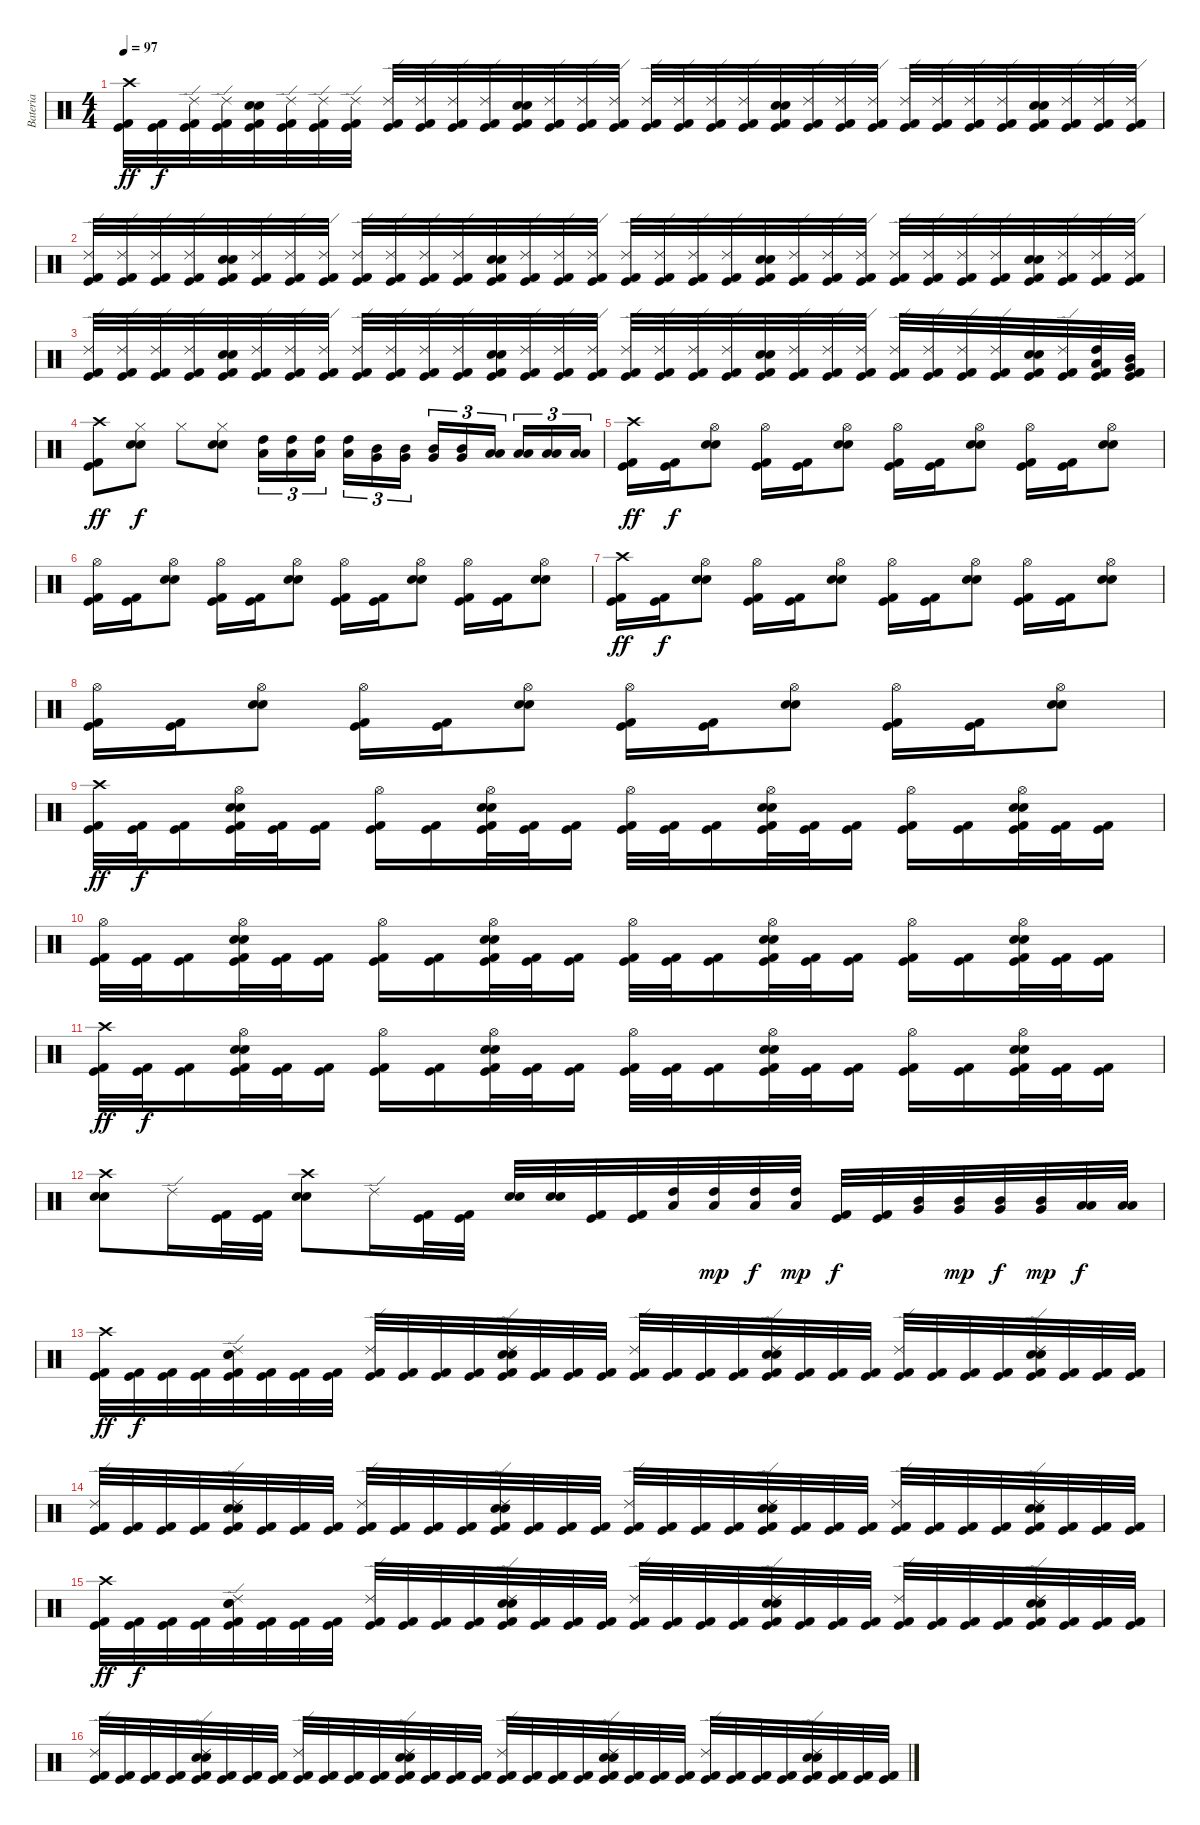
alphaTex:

\track ("Bateria" "Bateria") {instrument percussion}
\staff {score}
\articulation defaults
\ts (4 4)
\tempo 97
\clef neutral
\ks c
("Crash high (hit)" "Kick (hit) 2" "Kick (hit)").32{dy ff} ("Kick (hit) 2" "Kick (hit)").32{dy f} ("Ride (edge) 2" "Kick (hit) 2" "Kick (hit)").32 ("Ride (edge) 2" "Kick (hit) 2" "Kick (hit)").32 ("Electric Snare (hit)" "Snare (hit) 2" "Kick (hit) 2" "Kick (hit)").32 ("Ride (edge) 2" "Kick (hit) 2" "Kick (hit)").32 ("Ride (edge) 2" "Kick (hit) 2" "Kick (hit)").32 ("Ride (edge) 2" "Kick (hit) 2" "Kick (hit)").32 ("Ride (edge) 2" "Kick (hit) 2" "Kick (hit)").32 ("Ride (edge) 2" "Kick (hit) 2" "Kick (hit)").32 ("Ride (edge) 2" "Kick (hit) 2" "Kick (hit)").32 ("Ride (edge) 2" "Kick (hit) 2" "Kick (hit)").32 ("Electric Snare (hit)" "Snare (hit) 2" "Kick (hit) 2" "Kick (hit)").32 ("Ride (edge) 2" "Kick (hit) 2" "Kick (hit)").32 ("Ride (edge) 2" "Kick (hit) 2" "Kick (hit)").32 ("Ride (edge) 2" "Kick (hit) 2" "Kick (hit)").32 ("Ride (edge) 2" "Kick (hit) 2" "Kick (hit)").32 ("Ride (edge) 2" "Kick (hit) 2" "Kick (hit)").32 ("Ride (edge) 2" "Kick (hit) 2" "Kick (hit)").32 ("Ride (edge) 2" "Kick (hit) 2" "Kick (hit)").32 ("Electric Snare (hit)" "Snare (hit) 2" "Kick (hit) 2" "Kick (hit)").32 ("Ride (edge) 2" "Kick (hit) 2" "Kick (hit)").32 ("Ride (edge) 2" "Kick (hit) 2" "Kick (hit)").32 ("Ride (edge) 2" "Kick (hit) 2" "Kick (hit)").32 ("Ride (edge) 2" "Kick (hit) 2" "Kick (hit)").32 ("Ride (edge) 2" "Kick (hit) 2" "Kick (hit)").32 ("Ride (edge) 2" "Kick (hit) 2" "Kick (hit)").32 ("Ride (edge) 2" "Kick (hit) 2" "Kick (hit)").32 ("Electric Snare (hit)" "Snare (hit) 2" "Kick (hit) 2" "Kick (hit)").32 ("Ride (edge) 2" "Kick (hit) 2" "Kick (hit)").32 ("Ride (edge) 2" "Kick (hit) 2" "Kick (hit)").32 ("Ride (edge) 2" "Kick (hit) 2" "Kick (hit)").32 |
("Ride (edge) 2" "Kick (hit) 2" "Kick (hit)").32 ("Ride (edge) 2" "Kick (hit) 2" "Kick (hit)").32 ("Ride (edge) 2" "Kick (hit) 2" "Kick (hit)").32 ("Ride (edge) 2" "Kick (hit) 2" "Kick (hit)").32 ("Electric Snare (hit)" "Snare (hit) 2" "Kick (hit) 2" "Kick (hit)").32 ("Ride (edge) 2" "Kick (hit) 2" "Kick (hit)").32 ("Ride (edge) 2" "Kick (hit) 2" "Kick (hit)").32 ("Ride (edge) 2" "Kick (hit) 2" "Kick (hit)").32 ("Ride (edge) 2" "Kick (hit) 2" "Kick (hit)").32 ("Ride (edge) 2" "Kick (hit) 2" "Kick (hit)").32 ("Ride (edge) 2" "Kick (hit) 2" "Kick (hit)").32 ("Ride (edge) 2" "Kick (hit) 2" "Kick (hit)").32 ("Electric Snare (hit)" "Snare (hit) 2" "Kick (hit) 2" "Kick (hit)").32 ("Ride (edge) 2" "Kick (hit) 2" "Kick (hit)").32 ("Ride (edge) 2" "Kick (hit) 2" "Kick (hit)").32 ("Ride (edge) 2" "Kick (hit) 2" "Kick (hit)").32 ("Ride (edge) 2" "Kick (hit) 2" "Kick (hit)").32 ("Ride (edge) 2" "Kick (hit) 2" "Kick (hit)").32 ("Ride (edge) 2" "Kick (hit) 2" "Kick (hit)").32 ("Ride (edge) 2" "Kick (hit) 2" "Kick (hit)").32 ("Electric Snare (hit)" "Snare (hit) 2" "Kick (hit) 2" "Kick (hit)").32 ("Ride (edge) 2" "Kick (hit) 2" "Kick (hit)").32 ("Ride (edge) 2" "Kick (hit) 2" "Kick (hit)").32 ("Ride (edge) 2" "Kick (hit) 2" "Kick (hit)").32 ("Ride (edge) 2" "Kick (hit) 2" "Kick (hit)").32 ("Ride (edge) 2" "Kick (hit) 2" "Kick (hit)").32 ("Ride (edge) 2" "Kick (hit) 2" "Kick (hit)").32 ("Ride (edge) 2" "Kick (hit) 2" "Kick (hit)").32 ("Electric Snare (hit)" "Snare (hit) 2" "Kick (hit) 2" "Kick (hit)").32 ("Ride (edge) 2" "Kick (hit) 2" "Kick (hit)").32 ("Ride (edge) 2" "Kick (hit) 2" "Kick (hit)").32 ("Ride (edge) 2" "Kick (hit) 2" "Kick (hit)").32 |
("Ride (edge) 2" "Kick (hit) 2" "Kick (hit)").32 ("Ride (edge) 2" "Kick (hit) 2" "Kick (hit)").32 ("Ride (edge) 2" "Kick (hit) 2" "Kick (hit)").32 ("Ride (edge) 2" "Kick (hit) 2" "Kick (hit)").32 ("Electric Snare (hit)" "Snare (hit) 2" "Kick (hit) 2" "Kick (hit)").32 ("Ride (edge) 2" "Kick (hit) 2" "Kick (hit)").32 ("Ride (edge) 2" "Kick (hit) 2" "Kick (hit)").32 ("Ride (edge) 2" "Kick (hit) 2" "Kick (hit)").32 ("Ride (edge) 2" "Kick (hit) 2" "Kick (hit)").32 ("Ride (edge) 2" "Kick (hit) 2" "Kick (hit)").32 ("Ride (edge) 2" "Kick (hit) 2" "Kick (hit)").32 ("Ride (edge) 2" "Kick (hit) 2" "Kick (hit)").32 ("Electric Snare (hit)" "Snare (hit) 2" "Kick (hit) 2" "Kick (hit)").32 ("Ride (edge) 2" "Kick (hit) 2" "Kick (hit)").32 ("Ride (edge) 2" "Kick (hit) 2" "Kick (hit)").32 ("Ride (edge) 2" "Kick (hit) 2" "Kick (hit)").32 ("Ride (edge) 2" "Kick (hit) 2" "Kick (hit)").32 ("Ride (edge) 2" "Kick (hit) 2" "Kick (hit)").32 ("Ride (edge) 2" "Kick (hit) 2" "Kick (hit)").32 ("Ride (edge) 2" "Kick (hit) 2" "Kick (hit)").32 ("Electric Snare (hit)" "Snare (hit) 2" "Kick (hit) 2" "Kick (hit)").32 ("Ride (edge) 2" "Kick (hit) 2" "Kick (hit)").32 ("Ride (edge) 2" "Kick (hit) 2" "Kick (hit)").32 ("Ride (edge) 2" "Kick (hit) 2" "Kick (hit)").32 ("Ride (edge) 2" "Kick (hit) 2" "Kick (hit)").32 ("Ride (edge) 2" "Kick (hit) 2" "Kick (hit)").32 ("Ride (edge) 2" "Kick (hit) 2" "Kick (hit)").32 ("Ride (edge) 2" "Kick (hit) 2" "Kick (hit)").32 ("Electric Snare (hit)" "Snare (hit) 2" "Kick (hit) 2" "Kick (hit)").32 ("Ride (edge) 2" "Kick (hit) 2" "Kick (hit)").32 ("High Tom (hit)" "Low Tom (hit)" "Kick (hit) 2" "Kick (hit)").32 ("Mid Tom (hit)" "Very Low Tom (hit)" "Kick (hit) 2" "Kick (hit)").32 |
("Crash high (hit)" "Kick (hit) 2" "Kick (hit)").8{dy ff} ("Hi-Hat (closed)" "Electric Snare (hit)" "Snare (hit) 2").8{dy f} "Hi-Hat (closed)".8 ("Hi-Hat (closed)" "Electric Snare (hit)" "Snare (hit) 2").8 ("High Tom (hit)" "Low Tom (hit)").16{tu (3 2)} ("High Tom (hit)" "Low Tom (hit)").16{tu (3 2)} ("High Tom (hit)" "Low Tom (hit)").16{tu (3 2)} ("High Tom (hit)" "Low Tom (hit)").16{tu (3 2)} ("Mid Tom (hit)" "Very Low Tom (hit)").16{tu (3 2)} ("Mid Tom (hit)" "Very Low Tom (hit)").16{tu (3 2)} ("Mid Tom (hit)" "Very Low Tom (hit)").16{tu (3 2)} ("Mid Tom (hit)" "Very Low Tom (hit)").16{tu (3 2)} ("Low Tom (hit)" "Low Floor Tom (hit)").16{tu (3 2)} ("Low Tom (hit)" "Low Floor Tom (hit)").16{tu (3 2)} ("Low Tom (hit)" "Low Floor Tom (hit)").16{tu (3 2)} ("Low Tom (hit)" "Low Floor Tom (hit)").16{tu (3 2)} |
("Crash high (hit)" "Kick (hit) 2" "Kick (hit)").16{dy ff} ("Kick (hit) 2" "Kick (hit)").16{dy f} ("Hi-Hat (open)" "Electric Snare (hit)" "Snare (hit) 2").8 ("Hi-Hat (open)" "Kick (hit) 2" "Kick (hit)").16 ("Kick (hit) 2" "Kick (hit)").16 ("Hi-Hat (open)" "Electric Snare (hit)" "Snare (hit) 2").8 ("Hi-Hat (open)" "Kick (hit) 2" "Kick (hit)").16 ("Kick (hit) 2" "Kick (hit)").16 ("Hi-Hat (open)" "Electric Snare (hit)" "Snare (hit) 2").8 ("Hi-Hat (open)" "Kick (hit) 2" "Kick (hit)").16 ("Kick (hit) 2" "Kick (hit)").16 ("Hi-Hat (open)" "Electric Snare (hit)" "Snare (hit) 2").8 |
("Hi-Hat (open)" "Kick (hit) 2" "Kick (hit)").16 ("Kick (hit) 2" "Kick (hit)").16 ("Hi-Hat (open)" "Electric Snare (hit)" "Snare (hit) 2").8 ("Hi-Hat (open)" "Kick (hit) 2" "Kick (hit)").16 ("Kick (hit) 2" "Kick (hit)").16 ("Hi-Hat (open)" "Electric Snare (hit)" "Snare (hit) 2").8 ("Hi-Hat (open)" "Kick (hit) 2" "Kick (hit)").16 ("Kick (hit) 2" "Kick (hit)").16 ("Hi-Hat (open)" "Electric Snare (hit)" "Snare (hit) 2").8 ("Hi-Hat (open)" "Kick (hit) 2" "Kick (hit)").16 ("Kick (hit) 2" "Kick (hit)").16 ("Hi-Hat (open)" "Electric Snare (hit)" "Snare (hit) 2").8 |
("Crash high (hit)" "Kick (hit) 2" "Kick (hit)").16{dy ff} ("Kick (hit) 2" "Kick (hit)").16{dy f} ("Hi-Hat (open)" "Electric Snare (hit)" "Snare (hit) 2").8 ("Hi-Hat (open)" "Kick (hit) 2" "Kick (hit)").16 ("Kick (hit) 2" "Kick (hit)").16 ("Hi-Hat (open)" "Electric Snare (hit)" "Snare (hit) 2").8 ("Hi-Hat (open)" "Kick (hit) 2" "Kick (hit)").16 ("Kick (hit) 2" "Kick (hit)").16 ("Hi-Hat (open)" "Electric Snare (hit)" "Snare (hit) 2").8 ("Hi-Hat (open)" "Kick (hit) 2" "Kick (hit)").16 ("Kick (hit) 2" "Kick (hit)").16 ("Hi-Hat (open)" "Electric Snare (hit)" "Snare (hit) 2").8 |
("Hi-Hat (open)" "Kick (hit) 2" "Kick (hit)").16 ("Kick (hit) 2" "Kick (hit)").16 ("Hi-Hat (open)" "Electric Snare (hit)" "Snare (hit) 2").8 ("Hi-Hat (open)" "Kick (hit) 2" "Kick (hit)").16 ("Kick (hit) 2" "Kick (hit)").16 ("Hi-Hat (open)" "Electric Snare (hit)" "Snare (hit) 2").8 ("Hi-Hat (open)" "Kick (hit) 2" "Kick (hit)").16 ("Kick (hit) 2" "Kick (hit)").16 ("Hi-Hat (open)" "Electric Snare (hit)" "Snare (hit) 2").8 ("Hi-Hat (open)" "Kick (hit) 2" "Kick (hit)").16 ("Kick (hit) 2" "Kick (hit)").16 ("Hi-Hat (open)" "Electric Snare (hit)" "Snare (hit) 2").8 |
("Crash high (hit)" "Kick (hit) 2" "Kick (hit)").32{dy ff} ("Kick (hit) 2" "Kick (hit)").32{dy f} ("Kick (hit) 2" "Kick (hit)").16 ("Hi-Hat (open)" "Electric Snare (hit)" "Snare (hit) 2" "Kick (hit) 2" "Kick (hit)").32 ("Kick (hit) 2" "Kick (hit)").32 ("Kick (hit) 2" "Kick (hit)").16 ("Hi-Hat (open)" "Kick (hit) 2" "Kick (hit)").16 ("Kick (hit) 2" "Kick (hit)").16 ("Hi-Hat (open)" "Electric Snare (hit)" "Snare (hit) 2" "Kick (hit) 2" "Kick (hit)").32 ("Kick (hit) 2" "Kick (hit)").32 ("Kick (hit) 2" "Kick (hit)").16 ("Hi-Hat (open)" "Kick (hit) 2" "Kick (hit)").32 ("Kick (hit) 2" "Kick (hit)").32 ("Kick (hit) 2" "Kick (hit)").16 ("Hi-Hat (open)" "Electric Snare (hit)" "Snare (hit) 2" "Kick (hit) 2" "Kick (hit)").32 ("Kick (hit) 2" "Kick (hit)").32 ("Kick (hit) 2" "Kick (hit)").16 ("Hi-Hat (open)" "Kick (hit) 2" "Kick (hit)").16 ("Kick (hit) 2" "Kick (hit)").16 ("Hi-Hat (open)" "Electric Snare (hit)" "Snare (hit) 2" "Kick (hit) 2" "Kick (hit)").32 ("Kick (hit) 2" "Kick (hit)").32 ("Kick (hit) 2" "Kick (hit)").16 |
("Hi-Hat (open)" "Kick (hit) 2" "Kick (hit)").32 ("Kick (hit) 2" "Kick (hit)").32 ("Kick (hit) 2" "Kick (hit)").16 ("Hi-Hat (open)" "Electric Snare (hit)" "Snare (hit) 2" "Kick (hit) 2" "Kick (hit)").32 ("Kick (hit) 2" "Kick (hit)").32 ("Kick (hit) 2" "Kick (hit)").16 ("Hi-Hat (open)" "Kick (hit) 2" "Kick (hit)").16 ("Kick (hit) 2" "Kick (hit)").16 ("Hi-Hat (open)" "Electric Snare (hit)" "Snare (hit) 2" "Kick (hit) 2" "Kick (hit)").32 ("Kick (hit) 2" "Kick (hit)").32 ("Kick (hit) 2" "Kick (hit)").16 ("Hi-Hat (open)" "Kick (hit) 2" "Kick (hit)").32 ("Kick (hit) 2" "Kick (hit)").32 ("Kick (hit) 2" "Kick (hit)").16 ("Hi-Hat (open)" "Electric Snare (hit)" "Snare (hit) 2" "Kick (hit) 2" "Kick (hit)").32 ("Kick (hit) 2" "Kick (hit)").32 ("Kick (hit) 2" "Kick (hit)").16 ("Hi-Hat (open)" "Kick (hit) 2" "Kick (hit)").16 ("Kick (hit) 2" "Kick (hit)").16 ("Hi-Hat (open)" "Electric Snare (hit)" "Snare (hit) 2" "Kick (hit) 2" "Kick (hit)").32 ("Kick (hit) 2" "Kick (hit)").32 ("Kick (hit) 2" "Kick (hit)").16 |
("Crash high (hit)" "Kick (hit) 2" "Kick (hit)").32{dy ff} ("Kick (hit) 2" "Kick (hit)").32{dy f} ("Kick (hit) 2" "Kick (hit)").16 ("Hi-Hat (open)" "Electric Snare (hit)" "Snare (hit) 2" "Kick (hit) 2" "Kick (hit)").32 ("Kick (hit) 2" "Kick (hit)").32 ("Kick (hit) 2" "Kick (hit)").16 ("Hi-Hat (open)" "Kick (hit) 2" "Kick (hit)").16 ("Kick (hit) 2" "Kick (hit)").16 ("Hi-Hat (open)" "Electric Snare (hit)" "Snare (hit) 2" "Kick (hit) 2" "Kick (hit)").32 ("Kick (hit) 2" "Kick (hit)").32 ("Kick (hit) 2" "Kick (hit)").16 ("Hi-Hat (open)" "Kick (hit) 2" "Kick (hit)").32 ("Kick (hit) 2" "Kick (hit)").32 ("Kick (hit) 2" "Kick (hit)").16 ("Hi-Hat (open)" "Electric Snare (hit)" "Snare (hit) 2" "Kick (hit) 2" "Kick (hit)").32 ("Kick (hit) 2" "Kick (hit)").32 ("Kick (hit) 2" "Kick (hit)").16 ("Hi-Hat (open)" "Kick (hit) 2" "Kick (hit)").16 ("Kick (hit) 2" "Kick (hit)").16 ("Hi-Hat (open)" "Electric Snare (hit)" "Snare (hit) 2" "Kick (hit) 2" "Kick (hit)").32 ("Kick (hit) 2" "Kick (hit)").32 ("Kick (hit) 2" "Kick (hit)").16 |
("Crash high (hit)" "Electric Snare (hit)" "Snare (hit) 2").8 "Ride (edge) 2".16 ("Kick (hit) 2" "Kick (hit)").32 ("Kick (hit) 2" "Kick (hit)").32 ("Crash high (hit)" "Electric Snare (hit)" "Snare (hit) 2").8 "Ride (edge) 2".16 ("Kick (hit) 2" "Kick (hit)").32 ("Kick (hit) 2" "Kick (hit)").32 ("Electric Snare (hit)" "Snare (hit) 2").32 ("Electric Snare (hit)" "Snare (hit) 2").32 ("Kick (hit) 2" "Kick (hit)").32 ("Kick (hit) 2" "Kick (hit)").32 ("High Tom (hit)" "Low Tom (hit)").32 ("High Tom (hit)" "Low Tom (hit)").32{dy mp} ("High Tom (hit)" "Low Tom (hit)").32{dy f} ("High Tom (hit)" "Low Tom (hit)").32{dy mp} ("Kick (hit) 2" "Kick (hit)").32{dy f} ("Kick (hit) 2" "Kick (hit)").32 ("Mid Tom (hit)" "Very Low Tom (hit)").32 ("Mid Tom (hit)" "Very Low Tom (hit)").32{dy mp} ("Mid Tom (hit)" "Very Low Tom (hit)").32{dy f} ("Mid Tom (hit)" "Very Low Tom (hit)").32{dy mp} ("Low Tom (hit)" "Low Floor Tom (hit)").32{dy f} ("Low Tom (hit)" "Low Floor Tom (hit)").32 |
("Crash high (hit)" "Kick (hit) 2" "Kick (hit)").32{dy ff} ("Kick (hit) 2" "Kick (hit)").32{dy f} ("Kick (hit) 2" "Kick (hit)").32 ("Kick (hit) 2" "Kick (hit)").32 ("Ride (edge) 2" "Electric Snare (hit)" "Snare (hit) 2" "Kick (hit) 2" "Kick (hit)").32 ("Kick (hit) 2" "Kick (hit)").32 ("Kick (hit) 2" "Kick (hit)").32 ("Kick (hit) 2" "Kick (hit)").32 ("Ride (edge) 2" "Kick (hit) 2" "Kick (hit)").32 ("Kick (hit) 2" "Kick (hit)").32 ("Kick (hit) 2" "Kick (hit)").32 ("Kick (hit) 2" "Kick (hit)").32 ("Ride (edge) 2" "Electric Snare (hit)" "Snare (hit) 2" "Kick (hit) 2" "Kick (hit)").32 ("Kick (hit) 2" "Kick (hit)").32 ("Kick (hit) 2" "Kick (hit)").32 ("Kick (hit) 2" "Kick (hit)").32 ("Ride (edge) 2" "Kick (hit) 2" "Kick (hit)").32 ("Kick (hit) 2" "Kick (hit)").32 ("Kick (hit) 2" "Kick (hit)").32 ("Kick (hit) 2" "Kick (hit)").32 ("Ride (edge) 2" "Electric Snare (hit)" "Snare (hit) 2" "Kick (hit) 2" "Kick (hit)").32 ("Kick (hit) 2" "Kick (hit)").32 ("Kick (hit) 2" "Kick (hit)").32 ("Kick (hit) 2" "Kick (hit)").32 ("Ride (edge) 2" "Kick (hit) 2" "Kick (hit)").32 ("Kick (hit) 2" "Kick (hit)").32 ("Kick (hit) 2" "Kick (hit)").32 ("Kick (hit) 2" "Kick (hit)").32 ("Ride (edge) 2" "Electric Snare (hit)" "Snare (hit) 2" "Kick (hit) 2" "Kick (hit)").32 ("Kick (hit) 2" "Kick (hit)").32 ("Kick (hit) 2" "Kick (hit)").32 ("Kick (hit) 2" "Kick (hit)").32 |
("Ride (edge) 2" "Kick (hit) 2" "Kick (hit)").32 ("Kick (hit) 2" "Kick (hit)").32 ("Kick (hit) 2" "Kick (hit)").32 ("Kick (hit) 2" "Kick (hit)").32 ("Ride (edge) 2" "Electric Snare (hit)" "Snare (hit) 2" "Kick (hit) 2" "Kick (hit)").32 ("Kick (hit) 2" "Kick (hit)").32 ("Kick (hit) 2" "Kick (hit)").32 ("Kick (hit) 2" "Kick (hit)").32 ("Ride (edge) 2" "Kick (hit) 2" "Kick (hit)").32 ("Kick (hit) 2" "Kick (hit)").32 ("Kick (hit) 2" "Kick (hit)").32 ("Kick (hit) 2" "Kick (hit)").32 ("Ride (edge) 2" "Electric Snare (hit)" "Snare (hit) 2" "Kick (hit) 2" "Kick (hit)").32 ("Kick (hit) 2" "Kick (hit)").32 ("Kick (hit) 2" "Kick (hit)").32 ("Kick (hit) 2" "Kick (hit)").32 ("Ride (edge) 2" "Kick (hit) 2" "Kick (hit)").32 ("Kick (hit) 2" "Kick (hit)").32 ("Kick (hit) 2" "Kick (hit)").32 ("Kick (hit) 2" "Kick (hit)").32 ("Ride (edge) 2" "Electric Snare (hit)" "Snare (hit) 2" "Kick (hit) 2" "Kick (hit)").32 ("Kick (hit) 2" "Kick (hit)").32 ("Kick (hit) 2" "Kick (hit)").32 ("Kick (hit) 2" "Kick (hit)").32 ("Ride (edge) 2" "Kick (hit) 2" "Kick (hit)").32 ("Kick (hit) 2" "Kick (hit)").32 ("Kick (hit) 2" "Kick (hit)").32 ("Kick (hit) 2" "Kick (hit)").32 ("Ride (edge) 2" "Electric Snare (hit)" "Snare (hit) 2" "Kick (hit) 2" "Kick (hit)").32 ("Kick (hit) 2" "Kick (hit)").32 ("Kick (hit) 2" "Kick (hit)").32 ("Kick (hit) 2" "Kick (hit)").32 |
("Crash high (hit)" "Kick (hit) 2" "Kick (hit)").32{dy ff} ("Kick (hit) 2" "Kick (hit)").32{dy f} ("Kick (hit) 2" "Kick (hit)").32 ("Kick (hit) 2" "Kick (hit)").32 ("Ride (edge) 2" "Electric Snare (hit)" "Snare (hit) 2" "Kick (hit) 2" "Kick (hit)").32 ("Kick (hit) 2" "Kick (hit)").32 ("Kick (hit) 2" "Kick (hit)").32 ("Kick (hit) 2" "Kick (hit)").32 ("Ride (edge) 2" "Kick (hit) 2" "Kick (hit)").32 ("Kick (hit) 2" "Kick (hit)").32 ("Kick (hit) 2" "Kick (hit)").32 ("Kick (hit) 2" "Kick (hit)").32 ("Ride (edge) 2" "Electric Snare (hit)" "Snare (hit) 2" "Kick (hit) 2" "Kick (hit)").32 ("Kick (hit) 2" "Kick (hit)").32 ("Kick (hit) 2" "Kick (hit)").32 ("Kick (hit) 2" "Kick (hit)").32 ("Ride (edge) 2" "Kick (hit) 2" "Kick (hit)").32 ("Kick (hit) 2" "Kick (hit)").32 ("Kick (hit) 2" "Kick (hit)").32 ("Kick (hit) 2" "Kick (hit)").32 ("Ride (edge) 2" "Electric Snare (hit)" "Snare (hit) 2" "Kick (hit) 2" "Kick (hit)").32 ("Kick (hit) 2" "Kick (hit)").32 ("Kick (hit) 2" "Kick (hit)").32 ("Kick (hit) 2" "Kick (hit)").32 ("Ride (edge) 2" "Kick (hit) 2" "Kick (hit)").32 ("Kick (hit) 2" "Kick (hit)").32 ("Kick (hit) 2" "Kick (hit)").32 ("Kick (hit) 2" "Kick (hit)").32 ("Ride (edge) 2" "Electric Snare (hit)" "Snare (hit) 2" "Kick (hit) 2" "Kick (hit)").32 ("Kick (hit) 2" "Kick (hit)").32 ("Kick (hit) 2" "Kick (hit)").32 ("Kick (hit) 2" "Kick (hit)").32 |
("Ride (edge) 2" "Kick (hit) 2" "Kick (hit)").32 ("Kick (hit) 2" "Kick (hit)").32 ("Kick (hit) 2" "Kick (hit)").32 ("Kick (hit) 2" "Kick (hit)").32 ("Ride (edge) 2" "Electric Snare (hit)" "Snare (hit) 2" "Kick (hit) 2" "Kick (hit)").32 ("Kick (hit) 2" "Kick (hit)").32 ("Kick (hit) 2" "Kick (hit)").32 ("Kick (hit) 2" "Kick (hit)").32 ("Ride (edge) 2" "Kick (hit) 2" "Kick (hit)").32 ("Kick (hit) 2" "Kick (hit)").32 ("Kick (hit) 2" "Kick (hit)").32 ("Kick (hit) 2" "Kick (hit)").32 ("Ride (edge) 2" "Electric Snare (hit)" "Snare (hit) 2" "Kick (hit) 2" "Kick (hit)").32 ("Kick (hit) 2" "Kick (hit)").32 ("Kick (hit) 2" "Kick (hit)").32 ("Kick (hit) 2" "Kick (hit)").32 ("Ride (edge) 2" "Kick (hit) 2" "Kick (hit)").32 ("Kick (hit) 2" "Kick (hit)").32 ("Kick (hit) 2" "Kick (hit)").32 ("Kick (hit) 2" "Kick (hit)").32 ("Ride (edge) 2" "Electric Snare (hit)" "Snare (hit) 2" "Kick (hit) 2" "Kick (hit)").32 ("Kick (hit) 2" "Kick (hit)").32 ("Kick (hit) 2" "Kick (hit)").32 ("Kick (hit) 2" "Kick (hit)").32 ("Ride (edge) 2" "Kick (hit) 2" "Kick (hit)").32 ("Kick (hit) 2" "Kick (hit)").32 ("Kick (hit) 2" "Kick (hit)").32 ("Kick (hit) 2" "Kick (hit)").32 ("Ride (edge) 2" "Electric Snare (hit)" "Snare (hit) 2" "Kick (hit) 2" "Kick (hit)").32 ("Kick (hit) 2" "Kick (hit)").32 ("Kick (hit) 2" "Kick (hit)").32 ("Kick (hit) 2" "Kick (hit)").32
